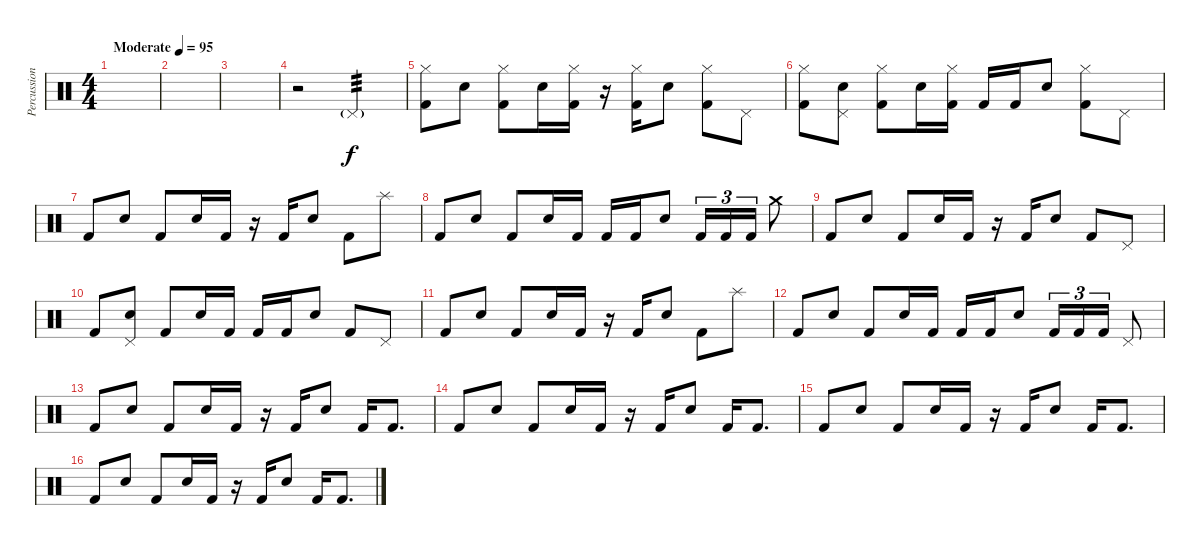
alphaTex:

\track ("Percussions" "Percussion") {instrument percussion}
\staff {score}
\articulation defaults
\ts (4 4)
\tempo (95 "Moderate")
\clef neutral
\ks c
|
|
|
r.2 "Pedal Hi-Hat (hit)"{g}.2{tp 3} |
("Kick (hit) 2" "Hi-Hat (closed)").8{dy f} "Electric Snare (hit)".8 ("Kick (hit) 2" "Hi-Hat (closed)").8 "Electric Snare (hit)".16 ("Kick (hit) 2" "Hi-Hat (closed)").16 r.16 ("Kick (hit) 2" "Hi-Hat (closed)").16 "Electric Snare (hit)".8 ("Kick (hit) 2" "Hi-Hat (closed)").8 "Pedal Hi-Hat (hit)".8 |
("Kick (hit) 2" "Hi-Hat (closed)").8 ("Pedal Hi-Hat (hit)" "Electric Snare (hit)").8 ("Kick (hit) 2" "Hi-Hat (closed)").8 "Electric Snare (hit)".16 ("Kick (hit) 2" "Hi-Hat (closed)").16 "Kick (hit) 2".16 "Kick (hit) 2".16 "Electric Snare (hit)".8 ("Kick (hit) 2" "Hi-Hat (closed)").8 "Pedal Hi-Hat (hit)".8 |
"Kick (hit) 2".8 "Electric Snare (hit)".8 "Kick (hit) 2".8 "Electric Snare (hit)".16 "Kick (hit) 2".16 r.16 "Kick (hit) 2".16 "Electric Snare (hit)".8 "Kick (hit) 2".8 "Splash (hit)".8 |
"Kick (hit) 2".8 "Electric Snare (hit)".8 "Kick (hit) 2".8 "Electric Snare (hit)".16 "Kick (hit) 2".16 "Kick (hit) 2".16 "Kick (hit) 2".16 "Electric Snare (hit)".8 "Kick (hit) 2".16{tu (3 2)} "Kick (hit) 2".16{tu (3 2)} "Kick (hit) 2".16{tu (3 2)} "Crash medium (hit)".8 |
"Kick (hit) 2".8 "Electric Snare (hit)".8 "Kick (hit) 2".8 "Electric Snare (hit)".16 "Kick (hit) 2".16 r.16 "Kick (hit) 2".16 "Electric Snare (hit)".8 "Kick (hit) 2".8 "Pedal Hi-Hat (hit)".8 |
"Kick (hit) 2".8 ("Pedal Hi-Hat (hit)" "Electric Snare (hit)").8 "Kick (hit) 2".8 "Electric Snare (hit)".16 "Kick (hit) 2".16 "Kick (hit) 2".16 "Kick (hit) 2".16 "Electric Snare (hit)".8 "Kick (hit) 2".8 "Pedal Hi-Hat (hit)".8 |
"Kick (hit) 2".8 "Electric Snare (hit)".8 "Kick (hit) 2".8 "Electric Snare (hit)".16 "Kick (hit) 2".16 r.16 "Kick (hit) 2".16 "Electric Snare (hit)".8 "Kick (hit) 2".8 "Splash (hit)".8 |
"Kick (hit) 2".8 "Electric Snare (hit)".8 "Kick (hit) 2".8 "Electric Snare (hit)".16 "Kick (hit) 2".16 "Kick (hit) 2".16 "Kick (hit) 2".16 "Electric Snare (hit)".8 "Kick (hit) 2".16{tu (3 2)} "Kick (hit) 2".16{tu (3 2)} "Kick (hit) 2".16{tu (3 2)} "Pedal Hi-Hat (hit)".8 |
"Kick (hit) 2".8 "Electric Snare (hit)".8 "Kick (hit) 2".8 "Electric Snare (hit)".16 "Kick (hit) 2".16 r.16 "Kick (hit) 2".16 "Electric Snare (hit)".8 "Kick (hit) 2".16 "Kick (hit) 2".8{d} |
"Kick (hit) 2".8 "Electric Snare (hit)".8 "Kick (hit) 2".8 "Electric Snare (hit)".16 "Kick (hit) 2".16 r.16 "Kick (hit) 2".16 "Electric Snare (hit)".8 "Kick (hit) 2".16 "Kick (hit) 2".8{d} |
"Kick (hit) 2".8 "Electric Snare (hit)".8 "Kick (hit) 2".8 "Electric Snare (hit)".16 "Kick (hit) 2".16 r.16 "Kick (hit) 2".16 "Electric Snare (hit)".8 "Kick (hit) 2".16 "Kick (hit) 2".8{d} |
"Kick (hit) 2".8 "Electric Snare (hit)".8 "Kick (hit) 2".8 "Electric Snare (hit)".16 "Kick (hit) 2".16 r.16 "Kick (hit) 2".16 "Electric Snare (hit)".8 "Kick (hit) 2".16 "Kick (hit) 2".8{d}
